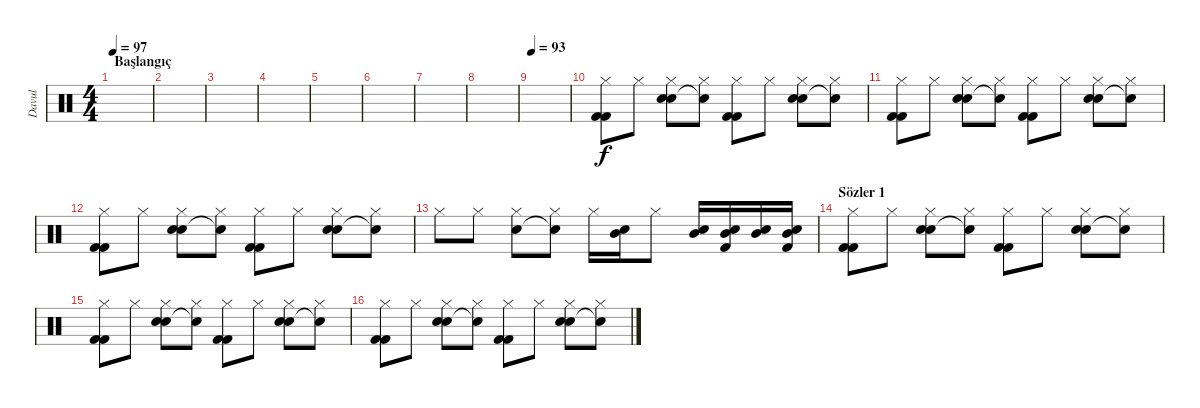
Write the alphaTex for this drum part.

\track ("Davul" "Davul") {instrument percussion}
\staff {score}
\articulation defaults
\ts (4 4)
\section ("" "Başlangıç")
\tempo 97
\clef neutral
\ks c
|
|
|
|
|
|
|
|
\tempo 93
|
("Hi-Hat (closed)" "Kick (hit) 2" "Kick (hit) 2").8 "Hi-Hat (closed)".8 ("Hi-Hat (closed)" "Snare (hit) 2" "Snare (hit) 2").8 ("Hi-Hat (closed)" "Snare (hit)"{t}).8 ("Hi-Hat (closed)" "Kick (hit) 2" "Kick (hit) 2").8 "Hi-Hat (closed)".8 ("Hi-Hat (closed)" "Snare (hit) 2" "Snare (hit) 2").8 ("Hi-Hat (closed)" "Snare (hit)"{t}).8 |
("Hi-Hat (closed)" "Kick (hit) 2" "Kick (hit) 2").8 "Hi-Hat (closed)".8 ("Hi-Hat (closed)" "Snare (hit) 2" "Snare (hit) 2").8 ("Hi-Hat (closed)" "Snare (hit)"{t}).8 ("Hi-Hat (closed)" "Kick (hit) 2" "Kick (hit) 2").8 "Hi-Hat (closed)".8 ("Hi-Hat (closed)" "Snare (hit) 2" "Snare (hit) 2").8 ("Hi-Hat (closed)" "Snare (hit)"{t}).8 |
("Hi-Hat (closed)" "Kick (hit) 2" "Kick (hit) 2").8 "Hi-Hat (closed)".8 ("Hi-Hat (closed)" "Snare (hit) 2" "Snare (hit) 2").8 ("Hi-Hat (closed)" "Snare (hit)"{t}).8 ("Hi-Hat (closed)" "Kick (hit) 2" "Kick (hit) 2").8 "Hi-Hat (closed)".8 ("Hi-Hat (closed)" "Snare (hit) 2" "Snare (hit) 2").8 ("Hi-Hat (closed)" "Snare (hit)"{t}).8 |
"Hi-Hat (closed)".8 "Hi-Hat (closed)".8 ("Hi-Hat (closed)" "Snare (hit) 2").8 ("Hi-Hat (closed)" "Snare (hit)"{t}).8 "Hi-Hat (closed)".16 ("Snare (hit) 2" "Mid Tom (hit)").16 "Hi-Hat (closed)".8 ("Snare (hit) 2" "Mid Tom (hit)").16 ("Snare (hit) 2" "Kick (hit) 2" "Mid Tom (hit)").16 ("Snare (hit) 2" "Mid Tom (hit)").16 ("Snare (hit) 2" "Kick (hit) 2" "Mid Tom (hit)").16 |
\section ("" "Sözler 1")
("Hi-Hat (closed)" "Kick (hit) 2" "Kick (hit) 2").8 "Hi-Hat (closed)".8 ("Hi-Hat (closed)" "Snare (hit) 2" "Snare (hit) 2").8 ("Hi-Hat (closed)" "Snare (hit)"{t}).8 ("Hi-Hat (closed)" "Kick (hit) 2" "Kick (hit) 2").8 "Hi-Hat (closed)".8 ("Hi-Hat (closed)" "Snare (hit) 2" "Snare (hit) 2").8 ("Hi-Hat (closed)" "Snare (hit)"{t}).8 |
("Hi-Hat (closed)" "Kick (hit) 2" "Kick (hit) 2").8 "Hi-Hat (closed)".8 ("Hi-Hat (closed)" "Snare (hit) 2" "Snare (hit) 2").8 ("Hi-Hat (closed)" "Snare (hit)"{t}).8 ("Hi-Hat (closed)" "Kick (hit) 2" "Kick (hit) 2").8 "Hi-Hat (closed)".8 ("Hi-Hat (closed)" "Snare (hit) 2" "Snare (hit) 2").8 ("Hi-Hat (closed)" "Snare (hit)"{t}).8 |
("Hi-Hat (closed)" "Kick (hit) 2" "Kick (hit) 2").8 "Hi-Hat (closed)".8 ("Hi-Hat (closed)" "Snare (hit) 2" "Snare (hit) 2").8 ("Hi-Hat (closed)" "Snare (hit)"{t}).8 ("Hi-Hat (closed)" "Kick (hit) 2" "Kick (hit) 2").8 "Hi-Hat (closed)".8 ("Hi-Hat (closed)" "Snare (hit) 2" "Snare (hit) 2").8 ("Hi-Hat (closed)" "Snare (hit)"{t}).8
